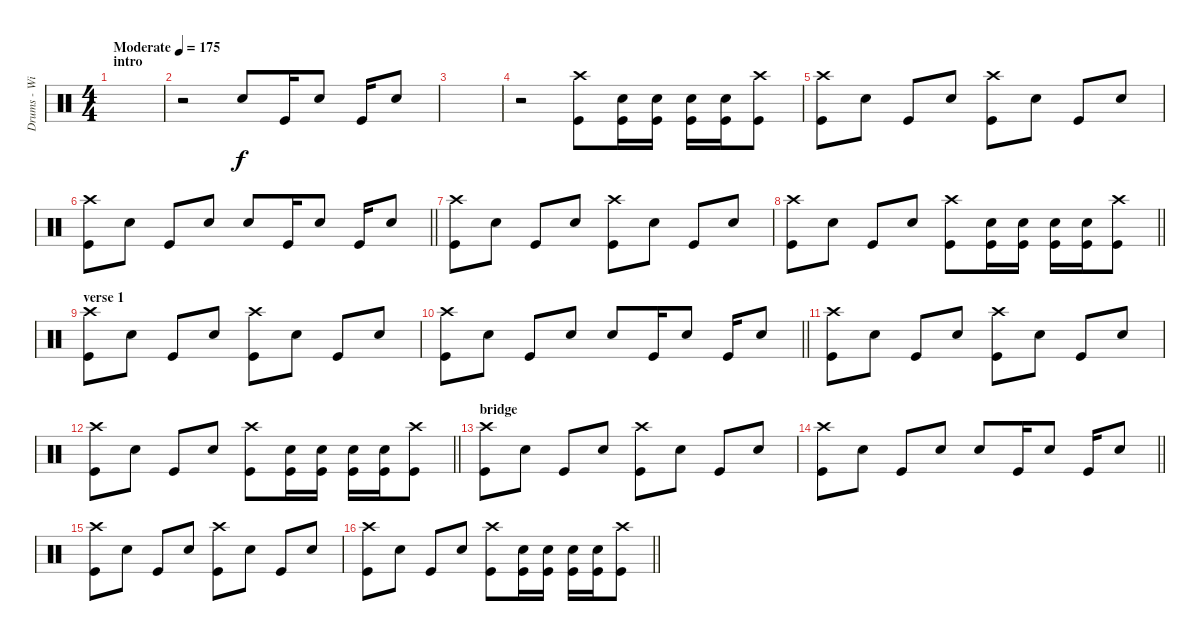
\track ("Drums - Willie Buchan" "Drums - Wi") {instrument percussion}
\staff {score}
\articulation defaults
\ts (4 4)
\section ("" "intro")
\tempo (175 "Moderate")
\clef neutral
\ks c
|
r.2 "Snare (hit) 2".8 "Kick (hit)".16 "Snare (hit) 2".8 "Kick (hit)".16 "Snare (hit) 2".8 |
|
r.2 ("Crash high (hit)" "Kick (hit)").8 ("Snare (hit) 2" "Kick (hit)").16 ("Snare (hit) 2" "Kick (hit)").16 ("Snare (hit) 2" "Kick (hit)").16 ("Snare (hit) 2" "Kick (hit)").16 ("Crash high (hit)" "Kick (hit)").8 |
("Crash high (hit)" "Kick (hit)").8 "Snare (hit) 2".8 "Kick (hit)".8 "Snare (hit) 2".8 ("Crash high (hit)" "Kick (hit)").8 "Snare (hit) 2".8 "Kick (hit)".8 "Snare (hit) 2".8 |
\barLineRight lightlight
("Crash high (hit)" "Kick (hit)").8 "Snare (hit) 2".8 "Kick (hit)".8 "Snare (hit) 2".8 "Snare (hit) 2".8 "Kick (hit)".16 "Snare (hit) 2".8 "Kick (hit)".16 "Snare (hit) 2".8 |
("Crash high (hit)" "Kick (hit)").8 "Snare (hit) 2".8 "Kick (hit)".8 "Snare (hit) 2".8 ("Crash high (hit)" "Kick (hit)").8 "Snare (hit) 2".8 "Kick (hit)".8 "Snare (hit) 2".8 |
\barLineRight lightlight
("Crash high (hit)" "Kick (hit)").8 "Snare (hit) 2".8 "Kick (hit)".8 "Snare (hit) 2".8 ("Crash high (hit)" "Kick (hit)").8 ("Snare (hit) 2" "Kick (hit)").16 ("Snare (hit) 2" "Kick (hit)").16 ("Snare (hit) 2" "Kick (hit)").16 ("Snare (hit) 2" "Kick (hit)").16 ("Crash high (hit)" "Kick (hit)").8 |
\section ("" "verse 1")
("Crash high (hit)" "Kick (hit)").8 "Snare (hit) 2".8 "Kick (hit)".8 "Snare (hit) 2".8 ("Crash high (hit)" "Kick (hit)").8 "Snare (hit) 2".8 "Kick (hit)".8 "Snare (hit) 2".8 |
\barLineRight lightlight
("Crash high (hit)" "Kick (hit)").8 "Snare (hit) 2".8 "Kick (hit)".8 "Snare (hit) 2".8 "Snare (hit) 2".8 "Kick (hit)".16 "Snare (hit) 2".8 "Kick (hit)".16 "Snare (hit) 2".8 |
("Crash high (hit)" "Kick (hit)").8 "Snare (hit) 2".8 "Kick (hit)".8 "Snare (hit) 2".8 ("Crash high (hit)" "Kick (hit)").8 "Snare (hit) 2".8 "Kick (hit)".8 "Snare (hit) 2".8 |
\barLineRight lightlight
("Crash high (hit)" "Kick (hit)").8 "Snare (hit) 2".8 "Kick (hit)".8 "Snare (hit) 2".8 ("Crash high (hit)" "Kick (hit)").8 ("Snare (hit) 2" "Kick (hit)").16 ("Snare (hit) 2" "Kick (hit)").16 ("Snare (hit) 2" "Kick (hit)").16 ("Snare (hit) 2" "Kick (hit)").16 ("Crash high (hit)" "Kick (hit)").8 |
\section ("" "bridge")
("Crash high (hit)" "Kick (hit)").8 "Snare (hit) 2".8 "Kick (hit)".8 "Snare (hit) 2".8 ("Crash high (hit)" "Kick (hit)").8 "Snare (hit) 2".8 "Kick (hit)".8 "Snare (hit) 2".8 |
\barLineRight lightlight
("Crash high (hit)" "Kick (hit)").8 "Snare (hit) 2".8 "Kick (hit)".8 "Snare (hit) 2".8 "Snare (hit) 2".8 "Kick (hit)".16 "Snare (hit) 2".8 "Kick (hit)".16 "Snare (hit) 2".8 |
("Crash high (hit)" "Kick (hit)").8 "Snare (hit) 2".8 "Kick (hit)".8 "Snare (hit) 2".8 ("Crash high (hit)" "Kick (hit)").8 "Snare (hit) 2".8 "Kick (hit)".8 "Snare (hit) 2".8 |
\barLineRight lightlight
("Crash high (hit)" "Kick (hit)").8 "Snare (hit) 2".8 "Kick (hit)".8 "Snare (hit) 2".8 ("Crash high (hit)" "Kick (hit)").8 ("Snare (hit) 2" "Kick (hit)").16 ("Snare (hit) 2" "Kick (hit)").16 ("Snare (hit) 2" "Kick (hit)").16 ("Snare (hit) 2" "Kick (hit)").16 ("Crash high (hit)" "Kick (hit)").8
